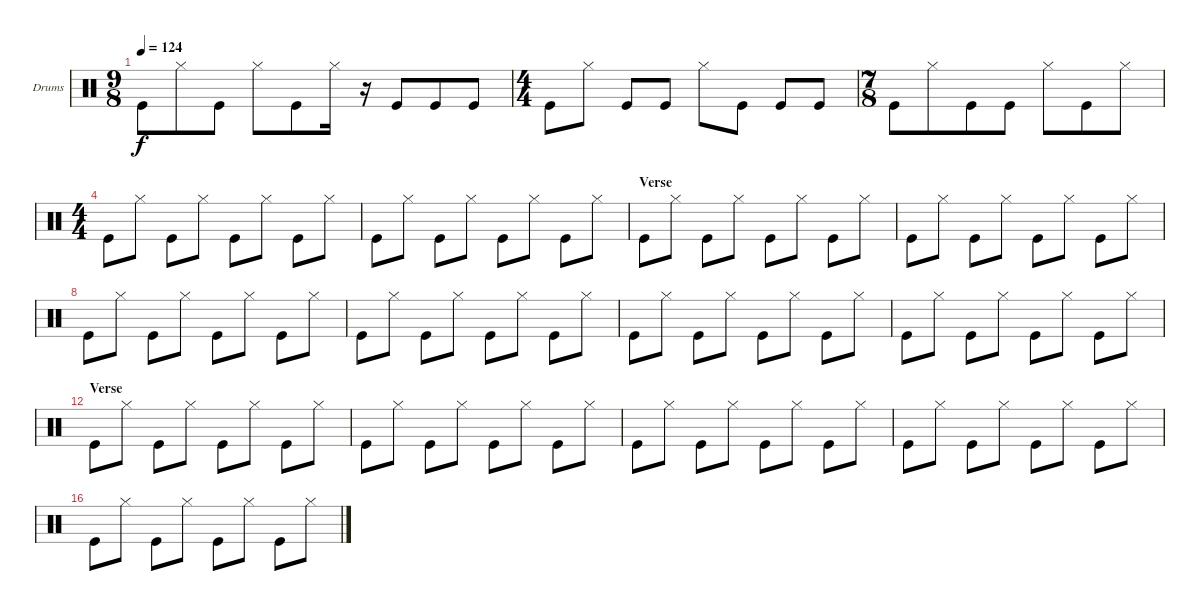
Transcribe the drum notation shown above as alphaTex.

\bracketExtendMode nobrackets
\firstSystemTrackNameOrientation horizontal
\otherSystemsTrackNameOrientation horizontal
\defaultBarNumberDisplay FirstOfSystem
\track ("Drumkit" "Drums") {instrument percussion}
\staff {score}
\articulation defaults
\ts (9 8)
\scale
0.448485
\tempo 124
\accidentals auto
\clef neutral
\ottava regular
\simile none
\ks c "Kick (hit)".8{dy f} "Hi-Hat (closed)".8 "Kick (hit)".8 "Hi-Hat (closed)".8 "Kick (hit)".8 "Hi-Hat (closed)".16
r.16 "Kick (hit)".8 "Kick (hit)".8 "Kick (hit)".8 |
\ts (4 4)
\scale
0.290909 "Kick (hit)".8 "Hi-Hat (closed)".8 "Kick (hit)".8 "Kick (hit)".8 "Hi-Hat (closed)".8 "Kick (hit)".8 "Kick (hit)".8 "Kick (hit)".8 |
\ts (7 8)
\scale
0.260606 "Kick (hit)".8 "Hi-Hat (closed)".8 "Kick (hit)".8 "Kick (hit)".8 "Hi-Hat (closed)".8 "Kick (hit)".8 "Hi-Hat (closed)".8 |
\ts (4 4)
\scale
0.352941 "Kick (hit)".8 "Hi-Hat (closed)".8 "Kick (hit)".8 "Hi-Hat (closed)".8 "Kick (hit)".8 "Hi-Hat (closed)".8 "Kick (hit)".8 "Hi-Hat (closed)".8 |
\scale
0.323529 "Kick (hit)".8 "Hi-Hat (closed)".8 "Kick (hit)".8 "Hi-Hat (closed)".8 "Kick (hit)".8 "Hi-Hat (closed)".8 "Kick (hit)".8 "Hi-Hat (closed)".8 |
\section ("" "Verse")
\scale
0.323529 "Kick (hit)".8 "Hi-Hat (closed)".8 "Kick (hit)".8 "Hi-Hat (closed)".8 "Kick (hit)".8 "Hi-Hat (closed)".8 "Kick (hit)".8 "Hi-Hat (closed)".8 |
\scale
0.312 "Kick (hit)".8 "Hi-Hat (closed)".8 "Kick (hit)".8 "Hi-Hat (closed)".8 "Kick (hit)".8 "Hi-Hat (closed)".8 "Kick (hit)".8 "Hi-Hat (closed)".8 |
\scale
0.376 "Kick (hit)".8 "Hi-Hat (closed)".8 "Kick (hit)".8 "Hi-Hat (closed)".8 "Kick (hit)".8 "Hi-Hat (closed)".8 "Kick (hit)".8 "Hi-Hat (closed)".8 |
\scale
0.312 "Kick (hit)".8 "Hi-Hat (closed)".8 "Kick (hit)".8 "Hi-Hat (closed)".8 "Kick (hit)".8 "Hi-Hat (closed)".8 "Kick (hit)".8 "Hi-Hat (closed)".8 |
\scale
0.371429 "Kick (hit)".8 "Hi-Hat (closed)".8 "Kick (hit)".8 "Hi-Hat (closed)".8 "Kick (hit)".8 "Hi-Hat (closed)".8 "Kick (hit)".8 "Hi-Hat (closed)".8 |
\scale
0.314286 "Kick (hit)".8 "Hi-Hat (closed)".8 "Kick (hit)".8 "Hi-Hat (closed)".8 "Kick (hit)".8 "Hi-Hat (closed)".8 "Kick (hit)".8 "Hi-Hat (closed)".8 |
\section ("" "Verse")
\scale
0.314286 "Kick (hit)".8 "Hi-Hat (closed)".8 "Kick (hit)".8 "Hi-Hat (closed)".8 "Kick (hit)".8 "Hi-Hat (closed)".8 "Kick (hit)".8 "Hi-Hat (closed)".8 |
\scale
0.312 "Kick (hit)".8 "Hi-Hat (closed)".8 "Kick (hit)".8 "Hi-Hat (closed)".8 "Kick (hit)".8 "Hi-Hat (closed)".8 "Kick (hit)".8 "Hi-Hat (closed)".8 |
\scale
0.376 "Kick (hit)".8 "Hi-Hat (closed)".8 "Kick (hit)".8 "Hi-Hat (closed)".8 "Kick (hit)".8 "Hi-Hat (closed)".8 "Kick (hit)".8 "Hi-Hat (closed)".8 |
\scale
0.312 "Kick (hit)".8 "Hi-Hat (closed)".8 "Kick (hit)".8 "Hi-Hat (closed)".8 "Kick (hit)".8 "Hi-Hat (closed)".8 "Kick (hit)".8 "Hi-Hat (closed)".8 |
"Kick (hit)".8 "Hi-Hat (closed)".8 "Kick (hit)".8 "Hi-Hat (closed)".8 "Kick (hit)".8 "Hi-Hat (closed)".8 "Kick (hit)".8 "Hi-Hat (closed)".8
